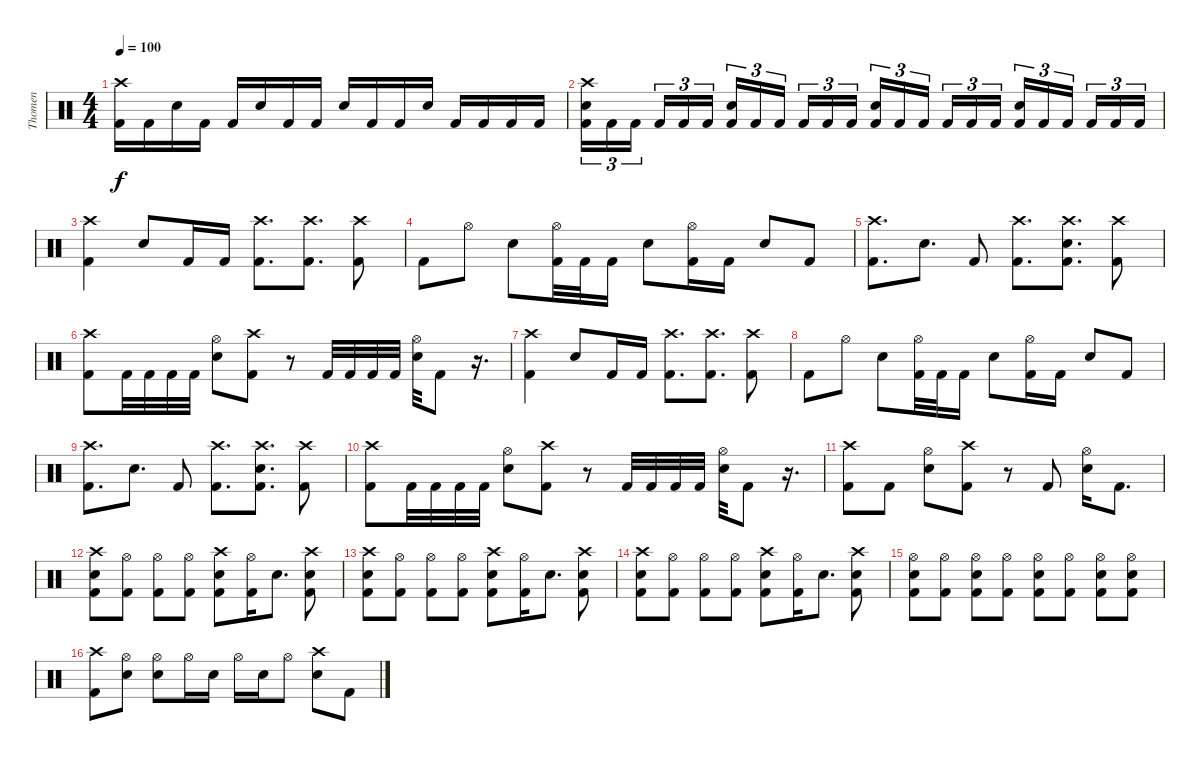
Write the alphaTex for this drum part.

\track ("Thomen" "Thomen") {instrument percussion}
\staff {score}
\articulation defaults
\ts (4 4)
\tempo 100
\clef neutral
\ks c
("Crash high (hit)" "Kick (hit) 2").16{dy f} "Kick (hit) 2".16 "Snare (hit) 2".16 "Kick (hit) 2".16 "Kick (hit) 2".16 "Snare (hit) 2".16 "Kick (hit) 2".16 "Kick (hit) 2".16 "Snare (hit) 2".16 "Kick (hit) 2".16 "Kick (hit) 2".16 "Snare (hit) 2".16 "Kick (hit) 2".16 "Kick (hit) 2".16 "Kick (hit) 2".16 "Kick (hit) 2".16 |
("Crash high (hit)" "Snare (hit) 2" "Kick (hit) 2").16{tu (3 2)} "Kick (hit) 2".16{tu (3 2)} "Kick (hit) 2".16{tu (3 2) beam splitsecondary} "Kick (hit) 2".16{tu (3 2)} "Kick (hit) 2".16{tu (3 2)} "Kick (hit) 2".16{tu (3 2)} ("Snare (hit) 2" "Kick (hit) 2").16{tu (3 2)} "Kick (hit) 2".16{tu (3 2)} "Kick (hit) 2".16{tu (3 2) beam splitsecondary} "Kick (hit) 2".16{tu (3 2)} "Kick (hit) 2".16{tu (3 2)} "Kick (hit) 2".16{tu (3 2)} ("Snare (hit) 2" "Kick (hit) 2").16{tu (3 2)} "Kick (hit) 2".16{tu (3 2)} "Kick (hit) 2".16{tu (3 2) beam splitsecondary} "Kick (hit) 2".16{tu (3 2)} "Kick (hit) 2".16{tu (3 2)} "Kick (hit) 2".16{tu (3 2)} ("Snare (hit) 2" "Kick (hit) 2").16{tu (3 2)} "Kick (hit) 2".16{tu (3 2)} "Kick (hit) 2".16{tu (3 2) beam splitsecondary} "Kick (hit) 2".16{tu (3 2)} "Kick (hit) 2".16{tu (3 2)} "Kick (hit) 2".16{tu (3 2)} |
("Crash high (hit)" "Kick (hit) 2").4 "Snare (hit) 2".8 "Kick (hit) 2".16 "Kick (hit) 2".16 ("Crash high (hit)" "Kick (hit) 2").8{d} ("Crash high (hit)" "Kick (hit) 2").8{d} ("Crash high (hit)" "Kick (hit) 2").8 |
"Kick (hit) 2".8 "Hi-Hat (open)".8 "Snare (hit) 2".8 ("Hi-Hat (open)" "Kick (hit) 2").32 "Kick (hit) 2".32 "Kick (hit) 2".16 "Snare (hit) 2".8 ("Hi-Hat (open)" "Kick (hit) 2").16 "Kick (hit) 2".16 "Snare (hit) 2".8 "Kick (hit) 2".8 |
("Crash high (hit)" "Kick (hit) 2").8{d} "Snare (hit) 2".8{d} "Kick (hit) 2".8 ("Crash high (hit)" "Kick (hit) 2").8{d} ("Crash high (hit)" "Snare (hit) 2" "Kick (hit) 2").8{d} ("Crash high (hit)" "Kick (hit) 2").8 |
("Crash high (hit)" "Kick (hit) 2").8 "Kick (hit) 2".32 "Kick (hit) 2".32 "Kick (hit) 2".32 "Kick (hit) 2".32 ("Hi-Hat (open)" "Snare (hit) 2").8 ("Crash high (hit)" "Kick (hit) 2").8 r.8 "Kick (hit) 2".32 "Kick (hit) 2".32 "Kick (hit) 2".32 "Kick (hit) 2".32 ("Hi-Hat (open)" "Snare (hit) 2").32 "Kick (hit) 2".8 r.16{d} |
("Crash high (hit)" "Kick (hit) 2").4 "Snare (hit) 2".8 "Kick (hit) 2".16 "Kick (hit) 2".16 ("Crash high (hit)" "Kick (hit) 2").8{d} ("Crash high (hit)" "Kick (hit) 2").8{d} ("Crash high (hit)" "Kick (hit) 2").8 |
"Kick (hit) 2".8 "Hi-Hat (open)".8 "Snare (hit) 2".8 ("Hi-Hat (open)" "Kick (hit) 2").32 "Kick (hit) 2".32 "Kick (hit) 2".16 "Snare (hit) 2".8 ("Hi-Hat (open)" "Kick (hit) 2").16 "Kick (hit) 2".16 "Snare (hit) 2".8 "Kick (hit) 2".8 |
("Crash high (hit)" "Kick (hit) 2").8{d} "Snare (hit) 2".8{d} "Kick (hit) 2".8 ("Crash high (hit)" "Kick (hit) 2").8{d} ("Crash high (hit)" "Snare (hit) 2" "Kick (hit) 2").8{d} ("Crash high (hit)" "Kick (hit) 2").8 |
("Crash high (hit)" "Kick (hit) 2").8 "Kick (hit) 2".32 "Kick (hit) 2".32 "Kick (hit) 2".32 "Kick (hit) 2".32 ("Hi-Hat (open)" "Snare (hit) 2").8 ("Crash high (hit)" "Kick (hit) 2").8 r.8 "Kick (hit) 2".32 "Kick (hit) 2".32 "Kick (hit) 2".32 "Kick (hit) 2".32 ("Hi-Hat (open)" "Snare (hit) 2").32 "Kick (hit) 2".8 r.16{d} |
("Crash high (hit)" "Kick (hit) 2").8 "Kick (hit) 2".8 ("Hi-Hat (open)" "Snare (hit) 2").8 ("Crash high (hit)" "Kick (hit) 2").8 r.8 "Kick (hit) 2".8 ("Hi-Hat (open)" "Snare (hit) 2").16 "Kick (hit) 2".8{d} |
("Crash high (hit)" "Snare (hit) 2" "Kick (hit) 2").8 ("Hi-Hat (open)" "Kick (hit) 2").8 ("Hi-Hat (open)" "Kick (hit) 2").8 ("Hi-Hat (open)" "Kick (hit) 2").8 ("Crash high (hit)" "Snare (hit) 2" "Kick (hit) 2").8 ("Hi-Hat (open)" "Kick (hit) 2").16 "Snare (hit) 2".8{d} ("Crash high (hit)" "Snare (hit) 2" "Kick (hit) 2").8 |
("Crash high (hit)" "Snare (hit) 2" "Kick (hit) 2").8 ("Hi-Hat (open)" "Kick (hit) 2").8 ("Hi-Hat (open)" "Kick (hit) 2").8 ("Hi-Hat (open)" "Kick (hit) 2").8 ("Crash high (hit)" "Snare (hit) 2" "Kick (hit) 2").8 ("Hi-Hat (open)" "Kick (hit) 2").16 "Snare (hit) 2".8{d} ("Crash high (hit)" "Snare (hit) 2" "Kick (hit) 2").8 |
("Crash high (hit)" "Snare (hit) 2" "Kick (hit) 2").8 ("Hi-Hat (open)" "Kick (hit) 2").8 ("Hi-Hat (open)" "Kick (hit) 2").8 ("Hi-Hat (open)" "Kick (hit) 2").8 ("Crash high (hit)" "Snare (hit) 2" "Kick (hit) 2").8 ("Hi-Hat (open)" "Kick (hit) 2").16 "Snare (hit) 2".8{d} ("Crash high (hit)" "Snare (hit) 2" "Kick (hit) 2").8 |
("Hi-Hat (open)" "Snare (hit) 2" "Kick (hit) 2").8 ("Hi-Hat (open)" "Kick (hit) 2").8 ("Hi-Hat (open)" "Snare (hit) 2" "Kick (hit) 2").8 ("Hi-Hat (open)" "Kick (hit) 2").8 ("Hi-Hat (open)" "Snare (hit) 2" "Kick (hit) 2").8 ("Hi-Hat (open)" "Kick (hit) 2").8 ("Hi-Hat (open)" "Snare (hit) 2" "Kick (hit) 2").8 ("Hi-Hat (open)" "Snare (hit) 2" "Kick (hit) 2").8 |
("Crash high (hit)" "Kick (hit) 2").8 ("Hi-Hat (open)" "Snare (hit) 2").8 ("Hi-Hat (open)" "Snare (hit) 2").8 "Hi-Hat (open)".16 "Snare (hit) 2".16 "Hi-Hat (open)".16 "Snare (hit) 2".16 "Hi-Hat (open)".8 ("Crash high (hit)" "Snare (hit) 2").8 "Kick (hit) 2".8
